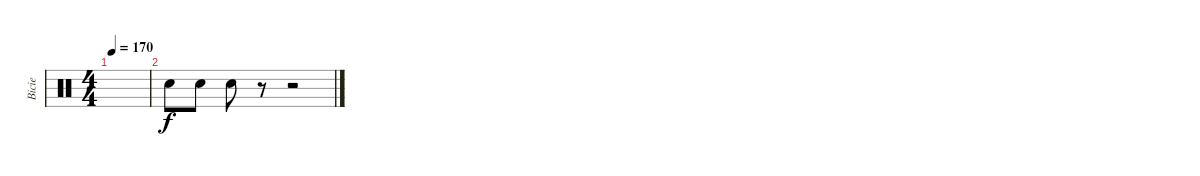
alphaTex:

\track ("Bicie" "Bicie") {instrument percussion}
\staff {score}
\articulation defaults
\ts (4 4)
\tempo 170
\clef neutral
\ks c
|
"Snare (hit) 2".8{dy f} "Snare (hit) 2".8 "Snare (hit) 2".8 r.8 r.2
